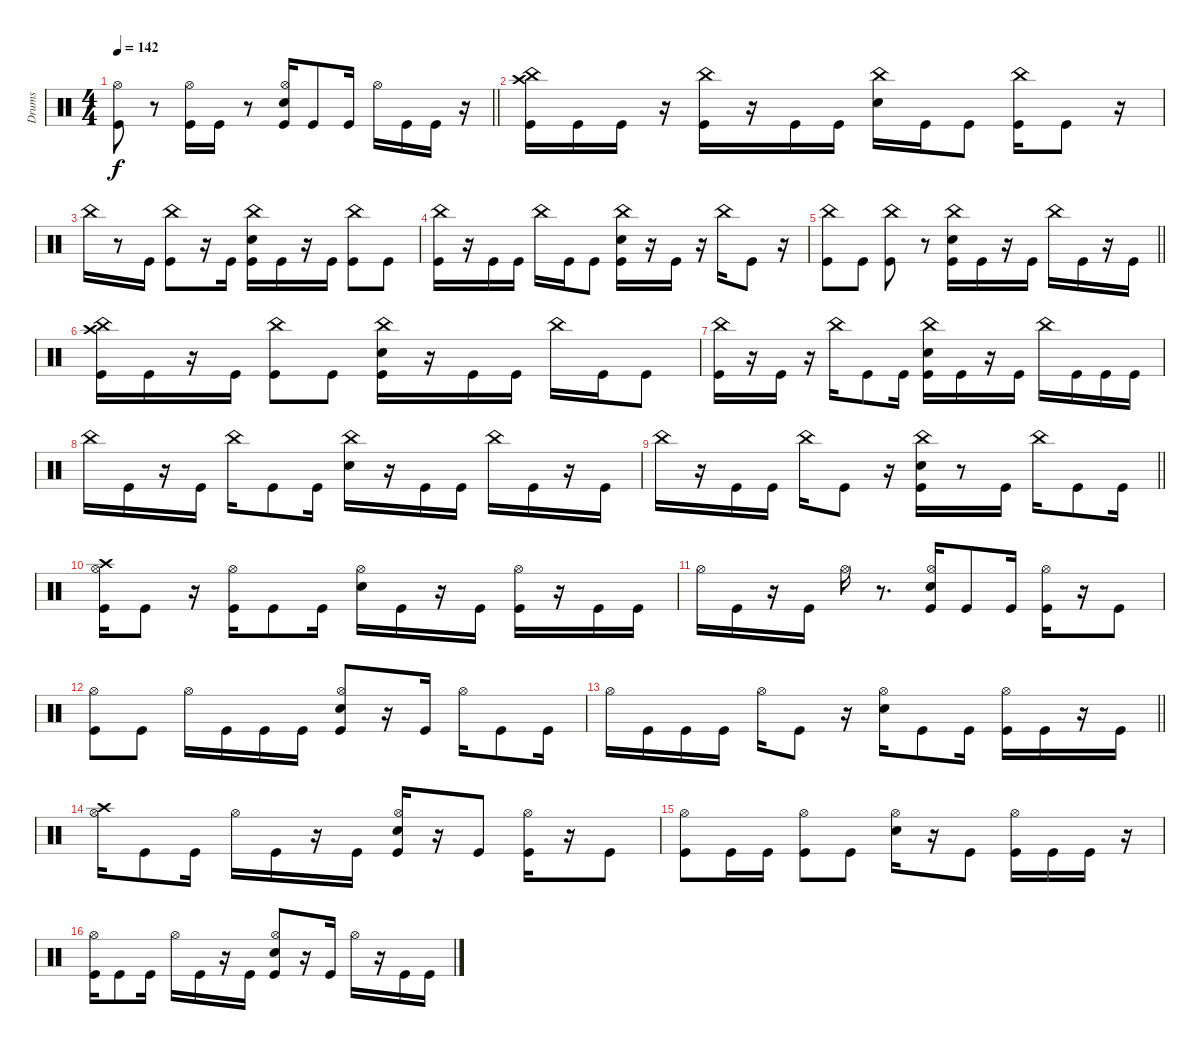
\track ("Drums" "Drums") {instrument percussion}
\staff {score}
\articulation defaults
\ts (4 4)
\tempo 142
\clef neutral
\barLineRight lightlight
\ks c
("Kick (hit)" "Hi-Hat (open)").8{dy f} r.8 ("Kick (hit)" "Hi-Hat (open)").16 "Kick (hit)".16 r.8 ("Kick (hit)" "Hi-Hat (open)" "Electric Snare (hit)").16 "Kick (hit)".8 "Kick (hit)".16 "Hi-Hat (open)".16 "Kick (hit)".16 "Kick (hit)".16 r.16 |
("Kick (hit)" "China (hit)" "Crash high (hit)").16 "Kick (hit)".16 "Kick (hit)".16 r.16 ("Kick (hit)" "China (hit)").16 r.16 "Kick (hit)".16 "Kick (hit)".16 ("China (hit)" "Electric Snare (hit)").16 "Kick (hit)".16 "Kick (hit)".8 ("Kick (hit)" "China (hit)").16 "Kick (hit)".8 r.16 |
"China (hit)".16 r.8 "Kick (hit)".16 ("Kick (hit)" "China (hit)").8 r.16 "Kick (hit)".16 ("Kick (hit)" "China (hit)" "Electric Snare (hit)").16 "Kick (hit)".16 r.16 "Kick (hit)".16 ("Kick (hit)" "China (hit)").8 "Kick (hit)".8 |
("Kick (hit)" "China (hit)").16 r.16 "Kick (hit)".16 "Kick (hit)".16 "China (hit)".16 "Kick (hit)".16 "Kick (hit)".8 ("Kick (hit)" "China (hit)" "Electric Snare (hit)").16 r.16 "Kick (hit)".16 r.16 "China (hit)".16 "Kick (hit)".8 r.16 |
\barLineRight lightlight
("Kick (hit)" "China (hit)").8 "Kick (hit)".8 ("Kick (hit)" "China (hit)").8 r.8 ("Kick (hit)" "China (hit)" "Electric Snare (hit)").16 "Kick (hit)".16 r.16 "Kick (hit)".16 "China (hit)".16 "Kick (hit)".16 r.16 "Kick (hit)".16 |
("Kick (hit)" "China (hit)" "Crash high (hit)").16 "Kick (hit)".16 r.16 "Kick (hit)".16 ("Kick (hit)" "China (hit)").8 "Kick (hit)".8 ("Kick (hit)" "China (hit)" "Electric Snare (hit)").16 r.16 "Kick (hit)".16 "Kick (hit)".16 "China (hit)".16 "Kick (hit)".16 "Kick (hit)".8 |
("Kick (hit)" "China (hit)").16 r.16 "Kick (hit)".16 r.16 "China (hit)".16 "Kick (hit)".8 "Kick (hit)".16 ("Kick (hit)" "China (hit)" "Electric Snare (hit)").16 "Kick (hit)".16 r.16 "Kick (hit)".16 "China (hit)".16 "Kick (hit)".16 "Kick (hit)".16 "Kick (hit)".16 |
"China (hit)".16 "Kick (hit)".16 r.16 "Kick (hit)".16 "China (hit)".16 "Kick (hit)".8 "Kick (hit)".16 ("China (hit)" "Electric Snare (hit)").16 r.16 "Kick (hit)".16 "Kick (hit)".16 "China (hit)".16 "Kick (hit)".16 r.16 "Kick (hit)".16 |
\barLineRight lightlight "China (hit)".16
r.16 "Kick (hit)".16 "Kick (hit)".16 "China (hit)".16 "Kick (hit)".8 r.16 ("Kick (hit)" "China (hit)" "Electric Snare (hit)").16 r.8 "Kick (hit)".16 "China (hit)".16 "Kick (hit)".8 "Kick (hit)".16 |
("Kick (hit)" "Hi-Hat (open)" "Crash high (hit)").16 "Kick (hit)".8 r.16 ("Kick (hit)" "Hi-Hat (open)").16 "Kick (hit)".8 "Kick (hit)".16 ("Hi-Hat (open)" "Electric Snare (hit)").16 "Kick (hit)".16 r.16 "Kick (hit)".16 ("Kick (hit)" "Hi-Hat (open)").16 r.16 "Kick (hit)".16 "Kick (hit)".16 |
"Hi-Hat (open)".16 "Kick (hit)".16 r.16 "Kick (hit)".16 "Hi-Hat (open)".16 r.8{d} ("Kick (hit)" "Hi-Hat (open)" "Electric Snare (hit)").16 "Kick (hit)".8 "Kick (hit)".16 ("Kick (hit)" "Hi-Hat (open)").16 r.16 "Kick (hit)".8 |
("Kick (hit)" "Hi-Hat (open)").8 "Kick (hit)".8 "Hi-Hat (open)".16 "Kick (hit)".16 "Kick (hit)".16 "Kick (hit)".16 ("Kick (hit)" "Hi-Hat (open)" "Electric Snare (hit)").8 r.16 "Kick (hit)".16 "Hi-Hat (open)".16 "Kick (hit)".8 "Kick (hit)".16 |
\barLineRight lightlight "Hi-Hat (open)".16 "Kick (hit)".16 "Kick (hit)".16 "Kick (hit)".16 "Hi-Hat (open)".16 "Kick (hit)".8
r.16 ("Hi-Hat (open)" "Electric Snare (hit)").16 "Kick (hit)".8 "Kick (hit)".16 ("Kick (hit)" "Hi-Hat (open)").16 "Kick (hit)".16 r.16 "Kick (hit)".16 |
("Hi-Hat (open)" "Crash high (hit)").16 "Kick (hit)".8 "Kick (hit)".16 "Hi-Hat (open)".16 "Kick (hit)".16 r.16 "Kick (hit)".16 ("Kick (hit)" "Hi-Hat (open)" "Electric Snare (hit)").16 r.16 "Kick (hit)".8 ("Kick (hit)" "Hi-Hat (open)").16 r.16 "Kick (hit)".8 |
("Kick (hit)" "Hi-Hat (open)").8 "Kick (hit)".16 "Kick (hit)".16 ("Kick (hit)" "Hi-Hat (open)").8 "Kick (hit)".8 ("Hi-Hat (open)" "Electric Snare (hit)").16 r.16 "Kick (hit)".8 ("Kick (hit)" "Hi-Hat (open)").16 "Kick (hit)".16 "Kick (hit)".16 r.16 |
("Kick (hit)" "Hi-Hat (open)").16 "Kick (hit)".8 "Kick (hit)".16 "Hi-Hat (open)".16 "Kick (hit)".16 r.16 "Kick (hit)".16 ("Kick (hit)" "Hi-Hat (open)" "Electric Snare (hit)").8 r.16 "Kick (hit)".16 "Hi-Hat (open)".16 r.16 "Kick (hit)".16 "Kick (hit)".16
